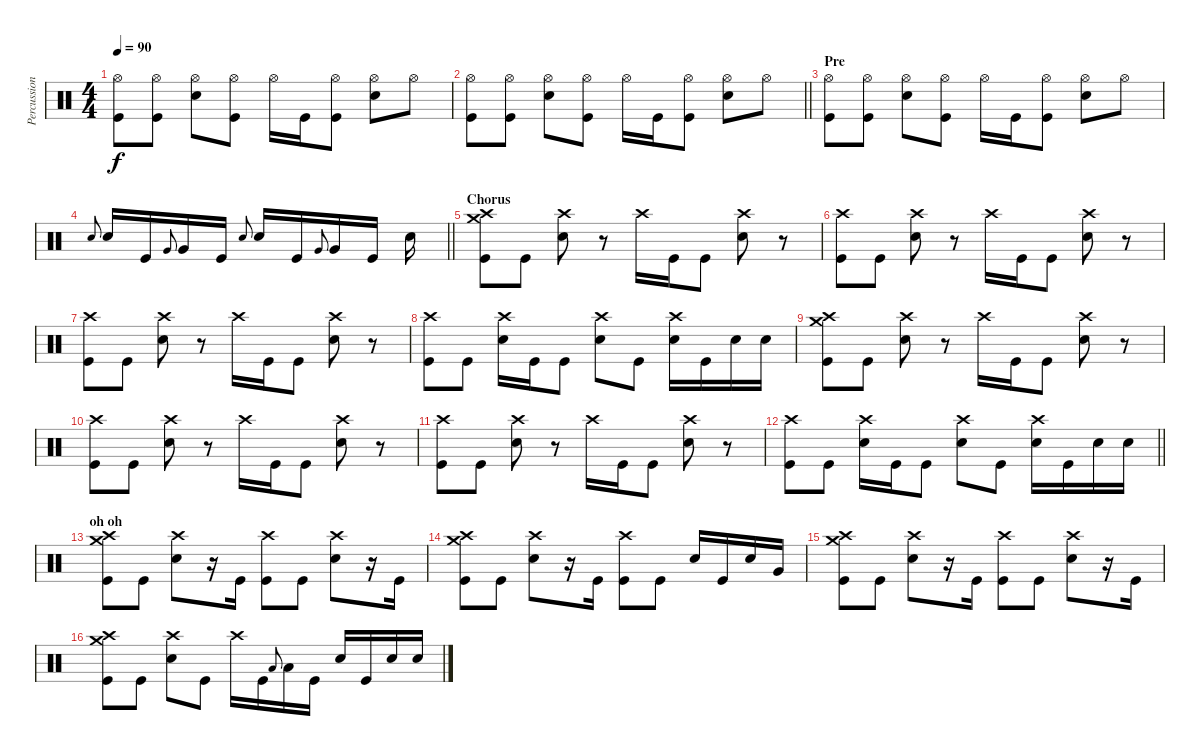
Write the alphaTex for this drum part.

\track ("Percussion" "Percussion") {instrument percussion}
\staff {score}
\articulation defaults
\ts (4 4)
\tempo 90
\clef neutral
\ks c
("Hi-Hat (open)" "Kick (hit)").8{dy f} ("Hi-Hat (open)" "Kick (hit)").8 ("Hi-Hat (open)" "Electric Snare (hit)").8 ("Hi-Hat (open)" "Kick (hit)").8 "Hi-Hat (open)".16 "Kick (hit)".16 ("Hi-Hat (open)" "Kick (hit)").8 ("Hi-Hat (open)" "Electric Snare (hit)").8 "Hi-Hat (open)".8 |
\barLineRight lightlight
("Hi-Hat (open)" "Kick (hit)").8 ("Hi-Hat (open)" "Kick (hit)").8 ("Hi-Hat (open)" "Electric Snare (hit)").8 ("Hi-Hat (open)" "Kick (hit)").8 "Hi-Hat (open)".16 "Kick (hit)".16 ("Hi-Hat (open)" "Kick (hit)").8 ("Hi-Hat (open)" "Electric Snare (hit)").8 "Hi-Hat (open)".8 |
\section ("" "Pre")
("Hi-Hat (open)" "Kick (hit)").8 ("Hi-Hat (open)" "Kick (hit)").8 ("Hi-Hat (open)" "Electric Snare (hit)").8 ("Hi-Hat (open)" "Kick (hit)").8 "Hi-Hat (open)".16 "Kick (hit)".16 ("Hi-Hat (open)" "Kick (hit)").8 ("Hi-Hat (open)" "Electric Snare (hit)").8 "Hi-Hat (open)".8 |
\barLineRight lightlight "Electric Snare (hit)".8{gr onbeat} "Electric Snare (hit)".16 "Kick (hit)".16 "Very Low Tom (hit)".8{gr onbeat} "Very Low Tom (hit)".16 "Kick (hit)".16 "Electric Snare (hit)".8{gr onbeat} "Electric Snare (hit)".16 "Kick (hit)".16 "Very Low Tom (hit)".8{gr onbeat} "Very Low Tom (hit)".16 "Kick (hit)".16 "Electric Snare (hit)".16
|
\section ("" "Chorus")
("Crash high (hit)" "Crash medium (hit)" "Kick (hit)").8{volume 11} "Kick (hit)".8 ("Crash high (hit)" "Electric Snare (hit)").8 r.8 "Crash high (hit)".16 "Kick (hit)".16 "Kick (hit)".8 ("Crash high (hit)" "Electric Snare (hit)").8 r.8 |
("Crash high (hit)" "Kick (hit)").8 "Kick (hit)".8 ("Crash high (hit)" "Electric Snare (hit)").8 r.8 "Crash high (hit)".16 "Kick (hit)".16 "Kick (hit)".8 ("Crash high (hit)" "Electric Snare (hit)").8 r.8 |
("Crash high (hit)" "Kick (hit)").8 "Kick (hit)".8 ("Crash high (hit)" "Electric Snare (hit)").8 r.8 "Crash high (hit)".16 "Kick (hit)".16 "Kick (hit)".8 ("Crash high (hit)" "Electric Snare (hit)").8 r.8 |
("Crash high (hit)" "Kick (hit)").8 "Kick (hit)".8 ("Crash high (hit)" "Electric Snare (hit)").16 "Kick (hit)".16 "Kick (hit)".8 ("Crash high (hit)" "Electric Snare (hit)").8 "Kick (hit)".8 ("Crash high (hit)" "Electric Snare (hit)").16 "Kick (hit)".16 "Electric Snare (hit)".16 "Electric Snare (hit)".16 |
("Crash high (hit)" "Crash medium (hit)" "Kick (hit)").8 "Kick (hit)".8 ("Crash high (hit)" "Electric Snare (hit)").8 r.8 "Crash high (hit)".16 "Kick (hit)".16 "Kick (hit)".8 ("Crash high (hit)" "Electric Snare (hit)").8 r.8 |
("Crash high (hit)" "Kick (hit)").8 "Kick (hit)".8 ("Crash high (hit)" "Electric Snare (hit)").8 r.8 "Crash high (hit)".16 "Kick (hit)".16 "Kick (hit)".8 ("Crash high (hit)" "Electric Snare (hit)").8 r.8 |
("Crash high (hit)" "Kick (hit)").8 "Kick (hit)".8 ("Crash high (hit)" "Electric Snare (hit)").8 r.8 "Crash high (hit)".16 "Kick (hit)".16 "Kick (hit)".8 ("Crash high (hit)" "Electric Snare (hit)").8 r.8 |
\barLineRight lightlight
("Crash high (hit)" "Kick (hit)").8 "Kick (hit)".8 ("Crash high (hit)" "Electric Snare (hit)").16 "Kick (hit)".16 "Kick (hit)".8 ("Crash high (hit)" "Electric Snare (hit)").8 "Kick (hit)".8 ("Crash high (hit)" "Electric Snare (hit)").16 "Kick (hit)".16 "Electric Snare (hit)".16 "Electric Snare (hit)".16 |
\section ("" "oh oh")
("Crash high (hit)" "Crash medium (hit)" "Kick (hit)").8 "Kick (hit)".8 ("Crash high (hit)" "Electric Snare (hit)").8 r.16 "Kick (hit)".16 ("Crash high (hit)" "Kick (hit)").8 "Kick (hit)".8 ("Crash high (hit)" "Electric Snare (hit)").8 r.16 "Kick (hit)".16 |
("Crash high (hit)" "Crash medium (hit)" "Kick (hit)").8 "Kick (hit)".8 ("Crash high (hit)" "Electric Snare (hit)").8 r.16 "Kick (hit)".16 ("Crash high (hit)" "Kick (hit)").8 "Kick (hit)".8 "Electric Snare (hit)".16 "Kick (hit)".16 "Electric Snare (hit)".16 "Very Low Tom (hit)".16 |
("Crash high (hit)" "Crash medium (hit)" "Kick (hit)").8 "Kick (hit)".8 ("Crash high (hit)" "Electric Snare (hit)").8 r.16 "Kick (hit)".16 ("Crash high (hit)" "Kick (hit)").8 "Kick (hit)".8 ("Crash high (hit)" "Electric Snare (hit)").8 r.16 "Kick (hit)".16 |
("Crash high (hit)" "Crash medium (hit)" "Kick (hit)").8 "Kick (hit)".8 ("Crash high (hit)" "Electric Snare (hit)").8 "Kick (hit)".8 "Crash high (hit)".16 "Kick (hit)".16 "Low Tom (hit)".8{gr onbeat} "Low Tom (hit)".16 "Kick (hit)".16 "Electric Snare (hit)".16 "Kick (hit)".16 "Electric Snare (hit)".16 "Electric Snare (hit)".16
